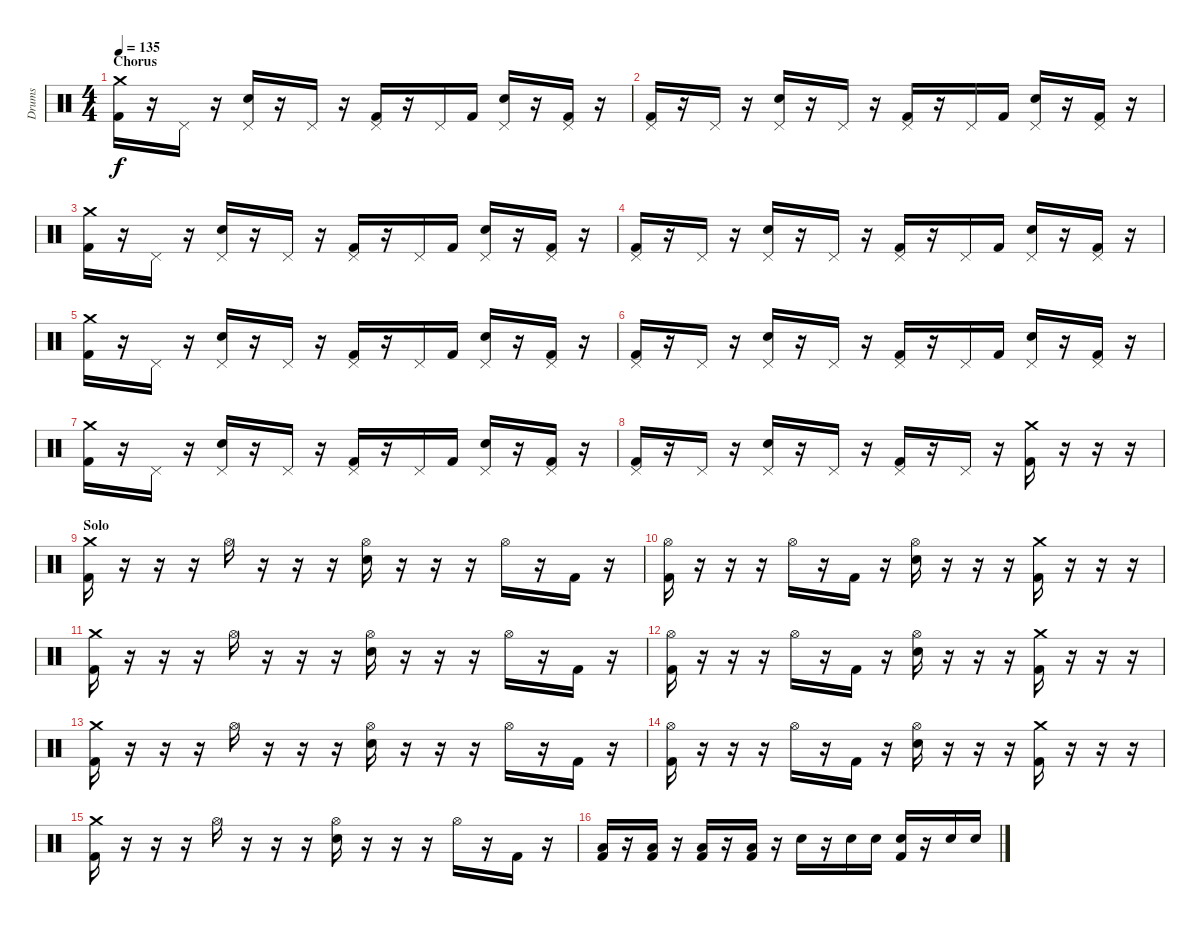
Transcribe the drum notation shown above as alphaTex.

\track ("Drums" "Drums") {instrument percussion}
\staff {score}
\articulation defaults
\ts (4 4)
\section ("" "Chorus")
\tempo 135
\clef neutral
\ks c
("Crash medium (hit)" "Kick (hit) 2").16{dy f} r.16 "Pedal Hi-Hat (hit)".16 r.16 ("Pedal Hi-Hat (hit)" "Electric Snare (hit)").16 r.16 "Pedal Hi-Hat (hit)".16 r.16 ("Pedal Hi-Hat (hit)" "Kick (hit) 2").16 r.16 "Pedal Hi-Hat (hit)".16 "Kick (hit) 2".16 ("Pedal Hi-Hat (hit)" "Electric Snare (hit)").16 r.16 ("Pedal Hi-Hat (hit)" "Kick (hit) 2").16 r.16 |
("Pedal Hi-Hat (hit)" "Kick (hit) 2").16 r.16 "Pedal Hi-Hat (hit)".16 r.16 ("Pedal Hi-Hat (hit)" "Electric Snare (hit)").16 r.16 "Pedal Hi-Hat (hit)".16 r.16 ("Pedal Hi-Hat (hit)" "Kick (hit) 2").16 r.16 "Pedal Hi-Hat (hit)".16 "Kick (hit) 2".16 ("Pedal Hi-Hat (hit)" "Electric Snare (hit)").16 r.16 ("Pedal Hi-Hat (hit)" "Kick (hit) 2").16 r.16 |
("Crash medium (hit)" "Kick (hit) 2").16 r.16 "Pedal Hi-Hat (hit)".16 r.16 ("Pedal Hi-Hat (hit)" "Electric Snare (hit)").16 r.16 "Pedal Hi-Hat (hit)".16 r.16 ("Pedal Hi-Hat (hit)" "Kick (hit) 2").16 r.16 "Pedal Hi-Hat (hit)".16 "Kick (hit) 2".16 ("Pedal Hi-Hat (hit)" "Electric Snare (hit)").16 r.16 ("Pedal Hi-Hat (hit)" "Kick (hit) 2").16 r.16 |
("Pedal Hi-Hat (hit)" "Kick (hit) 2").16 r.16 "Pedal Hi-Hat (hit)".16 r.16 ("Pedal Hi-Hat (hit)" "Electric Snare (hit)").16 r.16 "Pedal Hi-Hat (hit)".16 r.16 ("Pedal Hi-Hat (hit)" "Kick (hit) 2").16 r.16 "Pedal Hi-Hat (hit)".16 "Kick (hit) 2".16 ("Pedal Hi-Hat (hit)" "Electric Snare (hit)").16 r.16 ("Pedal Hi-Hat (hit)" "Kick (hit) 2").16 r.16 |
("Crash medium (hit)" "Kick (hit) 2").16 r.16 "Pedal Hi-Hat (hit)".16 r.16 ("Pedal Hi-Hat (hit)" "Electric Snare (hit)").16 r.16 "Pedal Hi-Hat (hit)".16 r.16 ("Pedal Hi-Hat (hit)" "Kick (hit) 2").16 r.16 "Pedal Hi-Hat (hit)".16 "Kick (hit) 2".16 ("Pedal Hi-Hat (hit)" "Electric Snare (hit)").16 r.16 ("Pedal Hi-Hat (hit)" "Kick (hit) 2").16 r.16 |
("Pedal Hi-Hat (hit)" "Kick (hit) 2").16 r.16 "Pedal Hi-Hat (hit)".16 r.16 ("Pedal Hi-Hat (hit)" "Electric Snare (hit)").16 r.16 "Pedal Hi-Hat (hit)".16 r.16 ("Pedal Hi-Hat (hit)" "Kick (hit) 2").16 r.16 "Pedal Hi-Hat (hit)".16 "Kick (hit) 2".16 ("Pedal Hi-Hat (hit)" "Electric Snare (hit)").16 r.16 ("Pedal Hi-Hat (hit)" "Kick (hit) 2").16 r.16 |
("Crash medium (hit)" "Kick (hit) 2").16 r.16 "Pedal Hi-Hat (hit)".16 r.16 ("Pedal Hi-Hat (hit)" "Electric Snare (hit)").16 r.16 "Pedal Hi-Hat (hit)".16 r.16 ("Pedal Hi-Hat (hit)" "Kick (hit) 2").16 r.16 "Pedal Hi-Hat (hit)".16 "Kick (hit) 2".16 ("Pedal Hi-Hat (hit)" "Electric Snare (hit)").16 r.16 ("Pedal Hi-Hat (hit)" "Kick (hit) 2").16 r.16 |
("Pedal Hi-Hat (hit)" "Kick (hit) 2").16 r.16 "Pedal Hi-Hat (hit)".16 r.16 ("Pedal Hi-Hat (hit)" "Electric Snare (hit)").16 r.16 "Pedal Hi-Hat (hit)".16 r.16 ("Pedal Hi-Hat (hit)" "Kick (hit) 2").16 r.16 "Pedal Hi-Hat (hit)".16 r.16 ("Crash medium (hit)" "Kick (hit) 2").16 r.16 r.16 r.16 |
\section ("" "Solo")
("Crash medium (hit)" "Kick (hit) 2").16 r.16 r.16 r.16 "Hi-Hat (open)".16 r.16 r.16 r.16 ("Hi-Hat (open)" "Electric Snare (hit)").16 r.16 r.16 r.16 "Hi-Hat (open)".16 r.16 "Kick (hit) 2".16 r.16 |
("Hi-Hat (open)" "Kick (hit) 2").16 r.16 r.16 r.16 "Hi-Hat (open)".16 r.16 "Kick (hit) 2".16 r.16 ("Hi-Hat (open)" "Electric Snare (hit)").16 r.16 r.16 r.16 ("Crash medium (hit)" "Kick (hit) 2").16 r.16 r.16 r.16 |
("Crash medium (hit)" "Kick (hit) 2").16 r.16 r.16 r.16 "Hi-Hat (open)".16 r.16 r.16 r.16 ("Hi-Hat (open)" "Electric Snare (hit)").16 r.16 r.16 r.16 "Hi-Hat (open)".16 r.16 "Kick (hit) 2".16 r.16 |
("Hi-Hat (open)" "Kick (hit) 2").16 r.16 r.16 r.16 "Hi-Hat (open)".16 r.16 "Kick (hit) 2".16 r.16 ("Hi-Hat (open)" "Electric Snare (hit)").16 r.16 r.16 r.16 ("Crash medium (hit)" "Kick (hit) 2").16 r.16 r.16 r.16 |
("Crash medium (hit)" "Kick (hit) 2").16 r.16 r.16 r.16 "Hi-Hat (open)".16 r.16 r.16 r.16 ("Hi-Hat (open)" "Electric Snare (hit)").16 r.16 r.16 r.16 "Hi-Hat (open)".16 r.16 "Kick (hit) 2".16 r.16 |
("Hi-Hat (open)" "Kick (hit) 2").16 r.16 r.16 r.16 "Hi-Hat (open)".16 r.16 "Kick (hit) 2".16 r.16 ("Hi-Hat (open)" "Electric Snare (hit)").16 r.16 r.16 r.16 ("Crash medium (hit)" "Kick (hit) 2").16 r.16 r.16 r.16 |
("Crash medium (hit)" "Kick (hit) 2").16 r.16 r.16 r.16 "Hi-Hat (open)".16 r.16 r.16 r.16 ("Hi-Hat (open)" "Electric Snare (hit)").16 r.16 r.16 r.16 "Hi-Hat (open)".16 r.16 "Kick (hit) 2".16 r.16 |
("Low Tom (hit)" "Kick (hit) 2").16 r.16 ("Low Tom (hit)" "Kick (hit) 2").16 r.16 ("Low Tom (hit)" "Kick (hit) 2").16 r.16 ("Low Tom (hit)" "Kick (hit) 2").16 r.16 "Electric Snare (hit)".16 r.16 "Electric Snare (hit)".16 "Electric Snare (hit)".16 ("Electric Snare (hit)" "Kick (hit) 2").16 r.16 "Electric Snare (hit)".16 "Electric Snare (hit)".16
